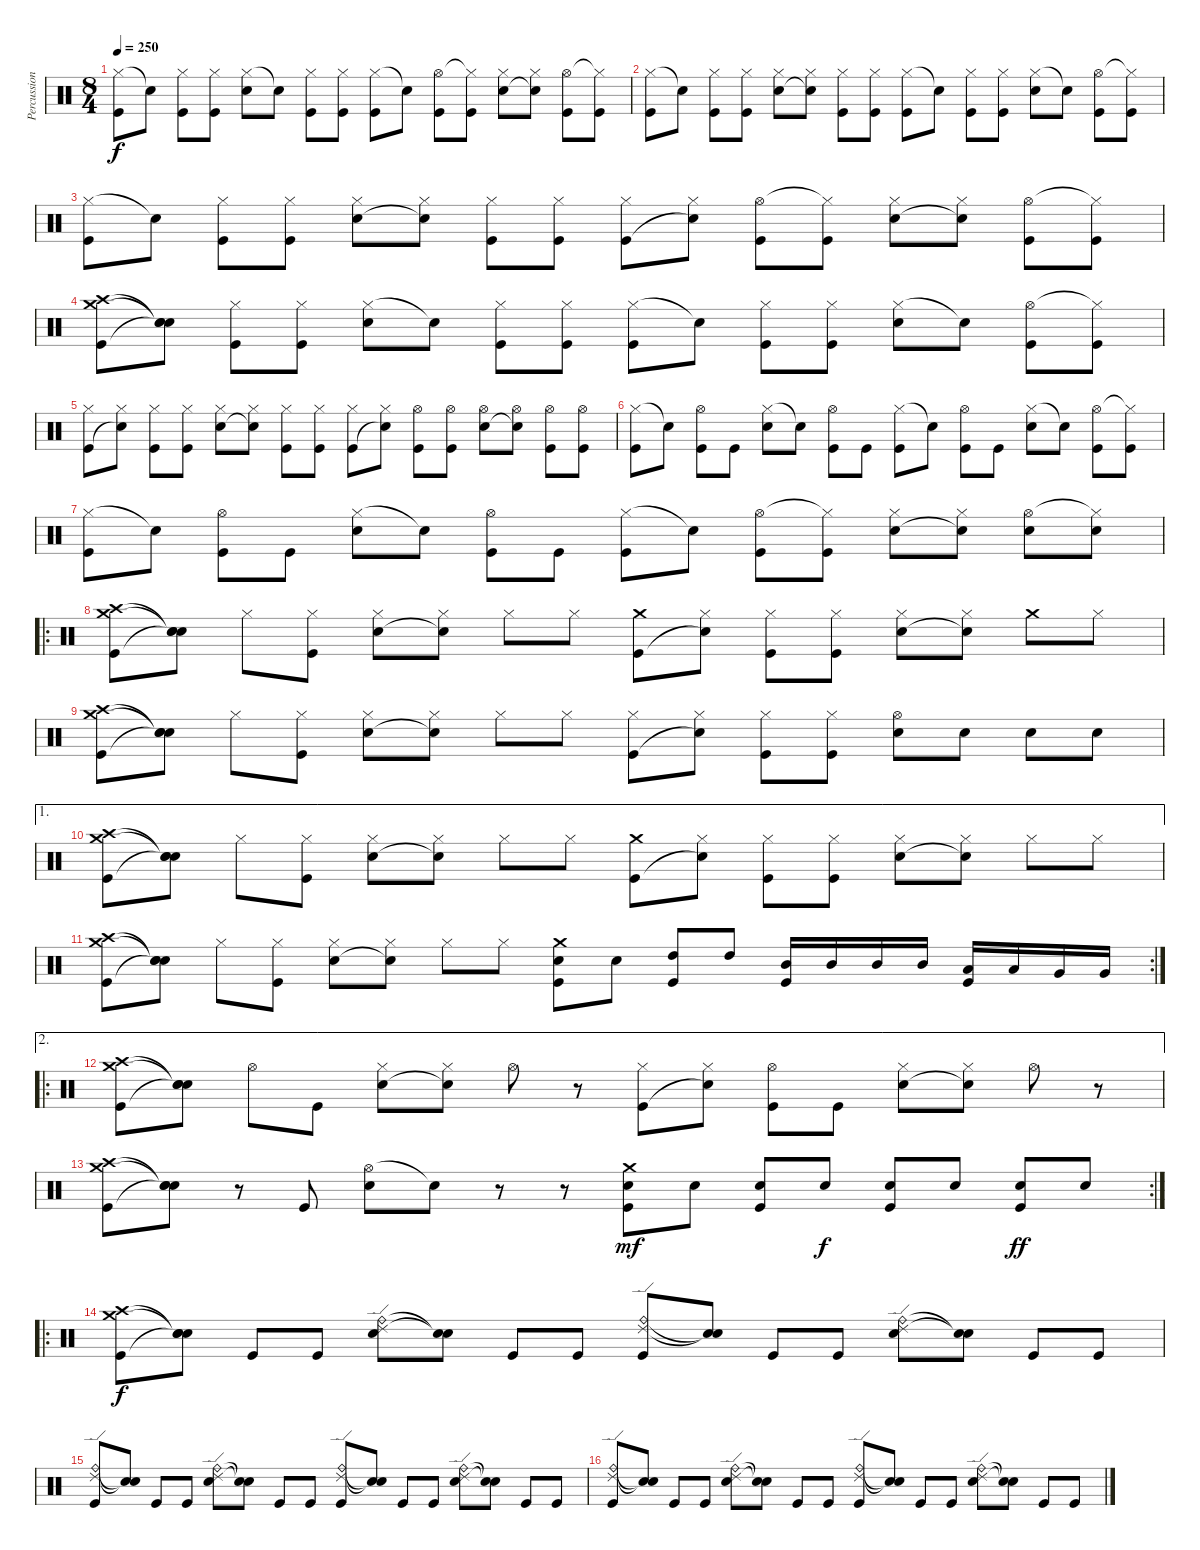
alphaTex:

\track ("Percussion" "Percussion") {instrument percussion}
\staff {score}
\articulation defaults
\ts (8 4)
\tempo 250
\clef neutral
\ks c
("Hi-Hat (closed)" "Kick (hit)").8{dy f} "Snare (hit)"{t}.8 ("Hi-Hat (closed)" "Kick (hit)").8 ("Hi-Hat (closed)" "Kick (hit)").8 ("Hi-Hat (closed)" "Snare (hit) 2").8 "Snare (hit)"{t}.8 ("Hi-Hat (closed)" "Kick (hit)").8 ("Hi-Hat (closed)" "Kick (hit)").8 ("Hi-Hat (closed)" "Kick (hit)").8 "Snare (hit)"{t}.8 ("Hi-Hat (open)" "Kick (hit)").8 ("Hi-Hat (closed)"{t} "Kick (hit)").8 ("Hi-Hat (closed)" "Snare (hit) 2").8 ("Hi-Hat (closed)" "Snare (hit)"{t}).8 ("Hi-Hat (open)" "Kick (hit)").8 ("Hi-Hat (closed)"{t} "Kick (hit)").8 |
("Hi-Hat (closed)" "Kick (hit)").8 "Snare (hit)"{t}.8 ("Hi-Hat (closed)" "Kick (hit)").8 ("Hi-Hat (closed)" "Kick (hit)").8 ("Hi-Hat (closed)" "Snare (hit) 2").8 ("Hi-Hat (closed)" "Snare (hit)"{t}).8 ("Hi-Hat (closed)" "Kick (hit)").8 ("Hi-Hat (closed)" "Kick (hit)").8 ("Hi-Hat (closed)" "Kick (hit)").8 "Snare (hit)"{t}.8 ("Hi-Hat (closed)" "Kick (hit)").8 ("Hi-Hat (closed)" "Kick (hit)").8 ("Hi-Hat (closed)" "Snare (hit) 2").8 "Snare (hit)"{t}.8 ("Hi-Hat (open)" "Kick (hit)").8 ("Hi-Hat (closed)"{t} "Kick (hit)").8 |
("Hi-Hat (closed)" "Kick (hit)").8 "Snare (hit)"{t}.8 ("Hi-Hat (closed)" "Kick (hit)").8 ("Hi-Hat (closed)" "Kick (hit)").8 ("Hi-Hat (closed)" "Snare (hit) 2").8 ("Hi-Hat (closed)" "Snare (hit)"{t}).8 ("Hi-Hat (closed)" "Kick (hit)").8 ("Hi-Hat (closed)" "Kick (hit)").8 ("Hi-Hat (closed)" "Kick (hit)").8 ("Hi-Hat (closed)" "Snare (hit)"{t}).8 ("Hi-Hat (open)" "Kick (hit)").8 ("Hi-Hat (closed)"{t} "Kick (hit)").8 ("Hi-Hat (closed)" "Snare (hit) 2").8 ("Hi-Hat (closed)" "Snare (hit)"{t}).8 ("Hi-Hat (open)" "Kick (hit)").8 ("Hi-Hat (closed)"{t} "Kick (hit)").8 |
("Crash medium (hit)" "Crash high (hit)" "Kick (hit)").8 ("Snare (hit)"{t} "Snare (hit)"{t} "Snare (hit)"{t}).8 ("Hi-Hat (closed)" "Kick (hit)").8 ("Hi-Hat (closed)" "Kick (hit)").8 ("Hi-Hat (closed)" "Snare (hit) 2").8 "Snare (hit)"{t}.8 ("Hi-Hat (closed)" "Kick (hit)").8 ("Hi-Hat (closed)" "Kick (hit)").8 ("Hi-Hat (closed)" "Kick (hit)").8 "Snare (hit)"{t}.8 ("Hi-Hat (closed)" "Kick (hit)").8 ("Hi-Hat (closed)" "Kick (hit)").8 ("Hi-Hat (closed)" "Snare (hit) 2").8 "Snare (hit)"{t}.8 ("Hi-Hat (open)" "Kick (hit)").8 ("Hi-Hat (closed)"{t} "Kick (hit)").8 |
("Hi-Hat (closed)" "Kick (hit)").8 ("Hi-Hat (closed)" "Snare (hit)"{t}).8 ("Hi-Hat (closed)" "Kick (hit)").8 ("Hi-Hat (closed)" "Kick (hit)").8 ("Hi-Hat (closed)" "Snare (hit) 2").8 ("Hi-Hat (closed)" "Snare (hit)"{t}).8 ("Hi-Hat (closed)" "Kick (hit)").8 ("Hi-Hat (closed)" "Kick (hit)").8 ("Hi-Hat (closed)" "Kick (hit)").8 ("Hi-Hat (closed)" "Snare (hit)"{t}).8 ("Hi-Hat (open)" "Kick (hit)").8 ("Hi-Hat (open)" "Kick (hit)").8 ("Hi-Hat (open)" "Snare (hit) 2").8 ("Hi-Hat (open)" "Snare (hit)"{t}).8 ("Hi-Hat (open)" "Kick (hit)").8 ("Hi-Hat (open)" "Kick (hit)").8 |
("Hi-Hat (closed)" "Kick (hit)").8 "Snare (hit)"{t}.8 ("Hi-Hat (open)" "Kick (hit)").8 "Kick (hit)".8 ("Hi-Hat (closed)" "Snare (hit) 2").8 "Snare (hit)"{t}.8 ("Hi-Hat (open)" "Kick (hit)").8 "Kick (hit)".8 ("Hi-Hat (closed)" "Kick (hit)").8 "Snare (hit)"{t}.8 ("Hi-Hat (open)" "Kick (hit)").8 "Kick (hit)".8 ("Hi-Hat (closed)" "Snare (hit) 2").8 "Snare (hit)"{t}.8 ("Hi-Hat (open)" "Kick (hit)").8 ("Hi-Hat (closed)"{t} "Kick (hit)").8 |
("Hi-Hat (closed)" "Kick (hit)").8 "Snare (hit)"{t}.8 ("Hi-Hat (open)" "Kick (hit)").8 "Kick (hit)".8 ("Hi-Hat (closed)" "Snare (hit) 2").8 "Snare (hit)"{t}.8 ("Hi-Hat (open)" "Kick (hit)").8 "Kick (hit)".8 ("Hi-Hat (closed)" "Kick (hit)").8 "Snare (hit)"{t}.8 ("Hi-Hat (open)" "Kick (hit)").8 ("Hi-Hat (closed)"{t} "Kick (hit)").8 ("Hi-Hat (closed)" "Snare (hit) 2").8 ("Hi-Hat (closed)" "Snare (hit)"{t}).8 ("Hi-Hat (open)" "Snare (hit) 2").8 ("Hi-Hat (closed)"{t} "Snare (hit) 2").8 |
\ro
("Crash medium (hit)" "Crash high (hit)" "Kick (hit)").8 ("Snare (hit)"{t} "Snare (hit)"{t} "Snare (hit)"{t}).8 "Hi-Hat (closed)".8 ("Hi-Hat (closed)" "Kick (hit)").8 ("Hi-Hat (closed)" "Snare (hit) 2").8 ("Hi-Hat (closed)" "Snare (hit)"{t}).8 "Hi-Hat (closed)".8 "Hi-Hat (closed)".8 ("Crash medium (hit)" "Kick (hit)").8 ("Hi-Hat (closed)" "Snare (hit)"{t}).8 ("Hi-Hat (closed)" "Kick (hit)").8 ("Hi-Hat (closed)" "Kick (hit)").8 ("Hi-Hat (closed)" "Snare (hit) 2").8 ("Hi-Hat (closed)" "Snare (hit)"{t}).8 "Crash medium (hit)".8 "Hi-Hat (closed)".8 |
("Crash medium (hit)" "Crash high (hit)" "Kick (hit)").8 ("Snare (hit)"{t} "Snare (hit)"{t} "Snare (hit)"{t}).8 "Hi-Hat (closed)".8 ("Hi-Hat (closed)" "Kick (hit)").8 ("Hi-Hat (closed)" "Snare (hit) 2").8 ("Hi-Hat (closed)" "Snare (hit)"{t}).8 "Hi-Hat (closed)".8 "Hi-Hat (closed)".8 ("Hi-Hat (closed)" "Kick (hit)").8 ("Hi-Hat (closed)" "Snare (hit)"{t}).8 ("Hi-Hat (closed)" "Kick (hit)").8 ("Hi-Hat (closed)" "Kick (hit)").8 ("Hi-Hat (open)" "Snare (hit) 2").8 "Snare (hit) 2".8 "Snare (hit) 2".8 "Snare (hit) 2".8 |
\ae 1
("Crash medium (hit)" "Crash high (hit)" "Kick (hit)").8 ("Snare (hit)"{t} "Snare (hit)"{t} "Snare (hit)"{t}).8 "Hi-Hat (closed)".8 ("Hi-Hat (closed)" "Kick (hit)").8 ("Hi-Hat (closed)" "Snare (hit) 2").8 ("Hi-Hat (closed)" "Snare (hit)"{t}).8 "Hi-Hat (closed)".8 "Hi-Hat (closed)".8 ("Crash medium (hit)" "Kick (hit)").8 ("Hi-Hat (closed)" "Snare (hit)"{t}).8 ("Hi-Hat (closed)" "Kick (hit)").8 ("Hi-Hat (closed)" "Kick (hit)").8 ("Hi-Hat (closed)" "Snare (hit) 2").8 ("Hi-Hat (closed)" "Snare (hit)"{t}).8 "Hi-Hat (closed)".8 "Hi-Hat (closed)".8 |
\rc 2
("Crash medium (hit)" "Crash high (hit)" "Kick (hit)").8 ("Snare (hit)"{t} "Snare (hit)"{t} "Snare (hit)"{t}).8 "Hi-Hat (closed)".8 ("Hi-Hat (closed)" "Kick (hit)").8 ("Hi-Hat (closed)" "Snare (hit) 2").8 ("Hi-Hat (closed)" "Snare (hit)"{t}).8 "Hi-Hat (closed)".8 "Hi-Hat (closed)".8 ("Crash medium (hit)" "Snare (hit) 2" "Kick (hit)").8 "Snare (hit) 2".8 ("High Tom (hit)" "Kick (hit)").8 "High Tom (hit)".8 ("Mid Tom (hit)" "Kick (hit)").16 "Mid Tom (hit)".16 "Mid Tom (hit)".16 "Mid Tom (hit)".16 ("Low Tom (hit)" "Kick (hit)").16 "Low Tom (hit)".16 "Very Low Tom (hit)".16 "Very Low Tom (hit)".16 |
\ae 2
\ro
("Crash medium (hit)" "Crash high (hit)" "Kick (hit)").8 ("Snare (hit)"{t} "Snare (hit)"{t} "Snare (hit)"{t}).8 "Hi-Hat (open)".8 "Kick (hit)".8 ("Hi-Hat (closed)" "Snare (hit) 2").8 ("Hi-Hat (closed)" "Snare (hit)"{t}).8 "Hi-Hat (open)".8 r.8 ("Hi-Hat (closed)" "Kick (hit)").8 ("Hi-Hat (closed)" "Snare (hit)"{t}).8 ("Hi-Hat (open)" "Kick (hit)").8 "Kick (hit)".8 ("Hi-Hat (closed)" "Snare (hit) 2").8 ("Hi-Hat (closed)" "Snare (hit)"{t}).8 "Hi-Hat (open)".8 r.8 |
\rc 2
("Crash medium (hit)" "Crash high (hit)" "Kick (hit)").8 ("Snare (hit)"{t} "Snare (hit)"{t} "Snare (hit)"{t}).8 r.8 "Kick (hit)".8 ("Hi-Hat (open)" "Snare (hit) 2").8 "Snare (hit)"{t}.8 r.8 r.8 ("Crash medium (hit)" "Snare (hit) 2" "Kick (hit)").8{dy mf} "Snare (hit) 2".8 ("Snare (hit) 2" "Kick (hit)").8 "Snare (hit) 2".8{dy f} ("Snare (hit) 2" "Kick (hit)").8 "Snare (hit) 2".8 ("Snare (hit) 2" "Kick (hit)").8{dy ff} "Snare (hit) 2".8 |
\ro
("Crash medium (hit)" "Crash high (hit)" "Kick (hit)").8{dy f} ("Snare (hit)"{t} "Snare (hit)"{t} "Snare (hit)"{t}).8 "Kick (hit)".8 "Kick (hit)".8 ("Ride (bell)" "Ride (edge) 2" "Snare (hit) 2").8 ("Snare (hit)"{t} "Snare (hit)"{t}).8 "Kick (hit)".8 "Kick (hit)".8 ("Ride (bell)" "Ride (edge) 2" "Kick (hit)").8 ("Snare (hit)"{t} "Snare (hit)"{t}).8 "Kick (hit)".8 "Kick (hit)".8 ("Ride (bell)" "Ride (edge) 2" "Snare (hit) 2").8 ("Snare (hit)"{t} "Snare (hit)"{t}).8 "Kick (hit)".8 "Kick (hit)".8 |
("Ride (bell)" "Ride (edge) 2" "Kick (hit)").8 ("Snare (hit)"{t} "Snare (hit)"{t}).8 "Kick (hit)".8 "Kick (hit)".8 ("Ride (bell)" "Ride (edge) 2" "Snare (hit) 2").8 ("Snare (hit)"{t} "Snare (hit)"{t}).8 "Kick (hit)".8 "Kick (hit)".8 ("Ride (bell)" "Ride (edge) 2" "Kick (hit)").8 ("Snare (hit)"{t} "Snare (hit)"{t}).8 "Kick (hit)".8 "Kick (hit)".8 ("Ride (bell)" "Ride (edge) 2" "Snare (hit) 2").8 ("Snare (hit)"{t} "Snare (hit)"{t}).8 "Kick (hit)".8 "Kick (hit)".8 |
("Ride (bell)" "Ride (edge) 2" "Kick (hit)").8 ("Snare (hit)"{t} "Snare (hit)"{t}).8 "Kick (hit)".8 "Kick (hit)".8 ("Ride (bell)" "Ride (edge) 2" "Snare (hit) 2").8 ("Snare (hit)"{t} "Snare (hit)"{t}).8 "Kick (hit)".8 "Kick (hit)".8 ("Ride (bell)" "Ride (edge) 2" "Kick (hit)").8 ("Snare (hit)"{t} "Snare (hit)"{t}).8 "Kick (hit)".8 "Kick (hit)".8 ("Ride (bell)" "Ride (edge) 2" "Snare (hit) 2").8 ("Snare (hit)"{t} "Snare (hit)"{t}).8 "Kick (hit)".8 "Kick (hit)".8
